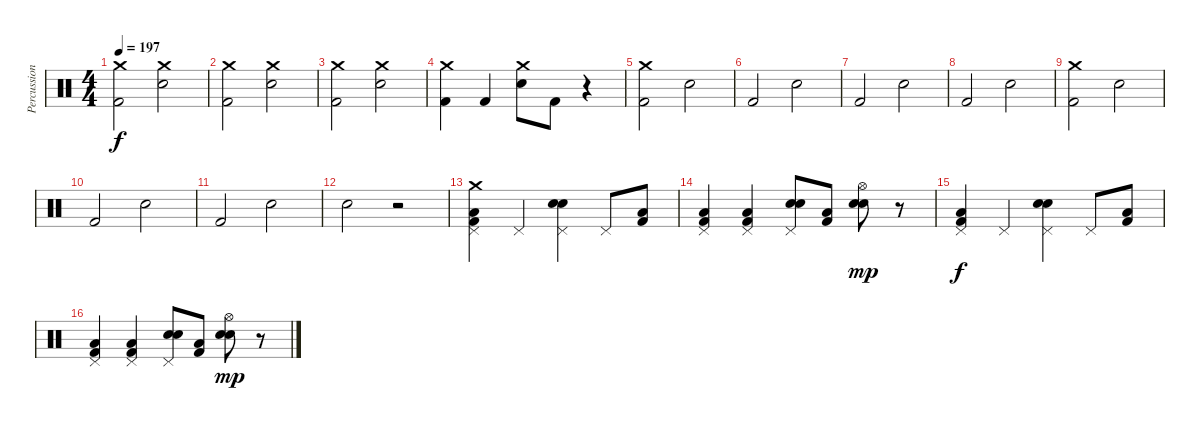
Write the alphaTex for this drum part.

\track ("Percussion" "Percussion") {instrument percussion}
\staff {score}
\articulation defaults
\ts (4 4)
\tempo 197
\clef neutral
\ks c
("Crash medium (hit)" "Kick (hit) 2").2{dy f} ("Crash medium (hit)" "Snare (hit) 2").2 |
("Crash medium (hit)" "Kick (hit) 2").2 ("Crash medium (hit)" "Snare (hit) 2").2 |
("Crash medium (hit)" "Kick (hit) 2").2 ("Crash medium (hit)" "Snare (hit) 2").2 |
("Crash medium (hit)" "Kick (hit) 2").4 "Kick (hit) 2".4 ("Crash medium (hit)" "Snare (hit) 2").8 "Kick (hit) 2".8 r.4 |
("Crash medium (hit)" "Kick (hit) 2").2 "Snare (hit) 2".2 |
"Kick (hit) 2".2 "Snare (hit) 2".2 |
"Kick (hit) 2".2 "Snare (hit) 2".2 |
"Kick (hit) 2".2 "Snare (hit) 2".2 |
("Crash medium (hit)" "Kick (hit) 2").2 "Snare (hit) 2".2 |
"Kick (hit) 2".2 "Snare (hit) 2".2 |
"Kick (hit) 2".2 "Snare (hit) 2".2 |
"Snare (hit) 2".2 r.2 |
("Crash medium (hit)" "Pedal Hi-Hat (hit)" "Kick (hit) 2" "Low Floor Tom (hit)").4 "Pedal Hi-Hat (hit)".4 ("Pedal Hi-Hat (hit)" "Electric Snare (hit)" "Snare (hit) 2").4 "Pedal Hi-Hat (hit)".8 ("Kick (hit) 2" "Low Floor Tom (hit)").8 |
("Pedal Hi-Hat (hit)" "Kick (hit) 2" "Low Floor Tom (hit)").4 ("Pedal Hi-Hat (hit)" "Kick (hit) 2" "Low Floor Tom (hit)").4 ("Pedal Hi-Hat (hit)" "Electric Snare (hit)" "Snare (hit) 2").8 ("Kick (hit) 2" "Low Floor Tom (hit)").8 ("Hi-Hat (open)" "Electric Snare (hit)" "Snare (hit) 2").8{dy mp} r.8 |
("Pedal Hi-Hat (hit)" "Kick (hit) 2" "Low Floor Tom (hit)").4{dy f} "Pedal Hi-Hat (hit)".4 ("Pedal Hi-Hat (hit)" "Electric Snare (hit)" "Snare (hit) 2").4 "Pedal Hi-Hat (hit)".8 ("Kick (hit) 2" "Low Floor Tom (hit)").8 |
("Pedal Hi-Hat (hit)" "Kick (hit) 2" "Low Floor Tom (hit)").4 ("Pedal Hi-Hat (hit)" "Kick (hit) 2" "Low Floor Tom (hit)").4 ("Pedal Hi-Hat (hit)" "Electric Snare (hit)" "Snare (hit) 2").8 ("Kick (hit) 2" "Low Floor Tom (hit)").8 ("Hi-Hat (open)" "Electric Snare (hit)" "Snare (hit) 2").8{dy mp} r.8
